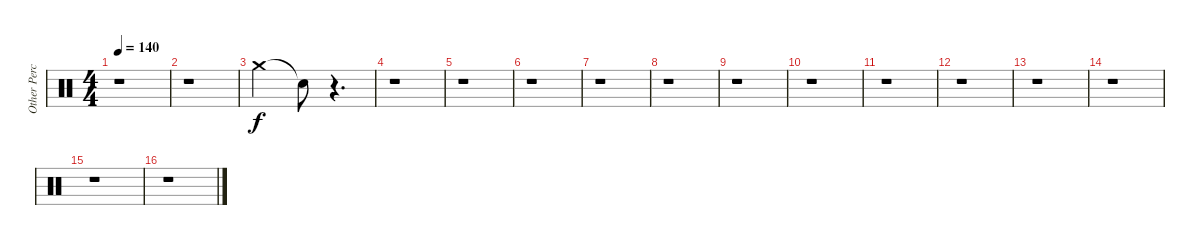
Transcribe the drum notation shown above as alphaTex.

\track ("Other Percussion" "Other Perc") {instrument percussion}
\staff {score}
\articulation defaults
\ts (4 4)
\tempo 140
\clef neutral
\ks c
r.1{dy f} |
r.1 |
"Crash medium (hit)".2 "Snare (hit)"{t}.8 r.4{d} |
r.1 |
r.1 |
r.1 |
r.1 |
r.1 |
r.1 |
r.1 |
r.1 |
r.1 |
r.1 |
r.1 |
r.1 |
r.1
